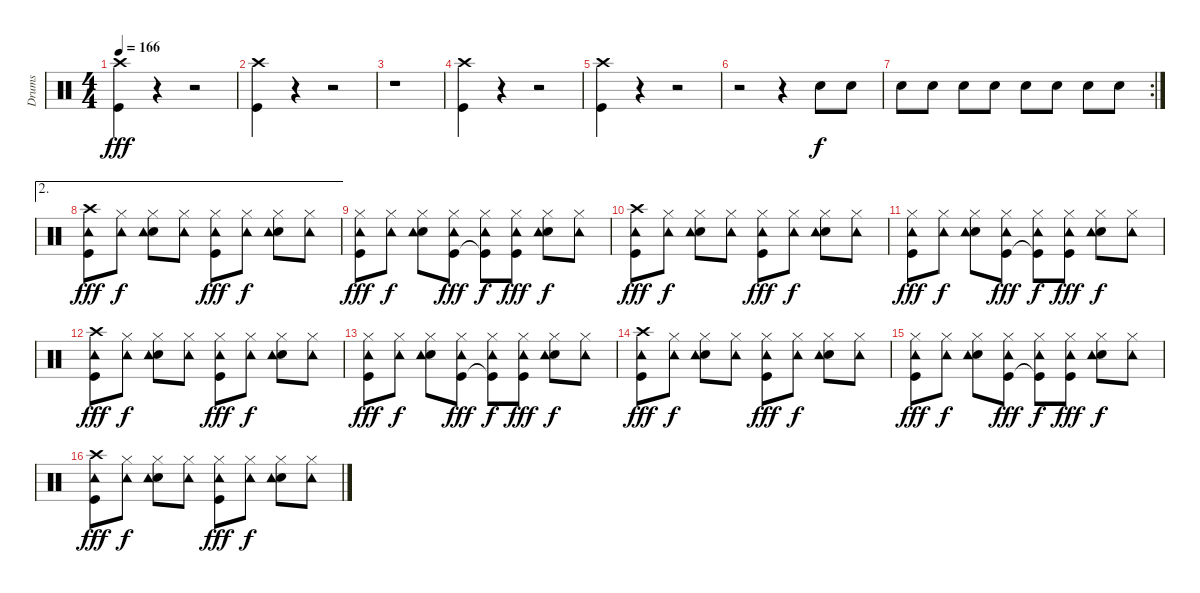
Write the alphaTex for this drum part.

\track ("Drums" "Drums") {instrument percussion}
\staff {score}
\articulation defaults
\ts (4 4)
\tempo 166
\clef neutral
\ks c
("Crash high (hit)" "Kick (hit)").4{dy fff} r.4 r.2 |
("Crash high (hit)" "Kick (hit)").4 r.4 r.2 |
r.1 |
("Crash high (hit)" "Kick (hit)").4 r.4 r.2 |
("Crash high (hit)" "Kick (hit)").4 r.4 r.2 |
r.2 r.4 "Snare (hit) 2".8{dy f} "Snare (hit) 2".8 |
\rc 2 "Snare (hit) 2".8 "Snare (hit) 2".8 "Snare (hit) 2".8 "Snare (hit) 2".8 "Snare (hit) 2".8 "Snare (hit) 2".8 "Snare (hit) 2".8 "Snare (hit) 2".8
|
\ae 2
("Crash high (hit)" "Tambourine (hit)" "Kick (hit)").8{dy fff} ("Hi-Hat (closed)" "Tambourine (hit)").8{dy f} ("Hi-Hat (closed)" "Snare (hit) 2" "Tambourine (hit)").8 ("Hi-Hat (closed)" "Tambourine (hit)").8 ("Hi-Hat (closed)" "Tambourine (hit)" "Kick (hit)").8{dy fff} ("Hi-Hat (closed)" "Tambourine (hit)").8{dy f} ("Hi-Hat (closed)" "Snare (hit) 2" "Tambourine (hit)").8 ("Hi-Hat (closed)" "Tambourine (hit)").8 |
("Hi-Hat (closed)" "Tambourine (hit)" "Kick (hit)").8{dy fff} ("Hi-Hat (closed)" "Tambourine (hit)").8{dy f} ("Hi-Hat (closed)" "Snare (hit) 2" "Tambourine (hit)").8 ("Hi-Hat (closed)" "Tambourine (hit)" "Kick (hit)").8{dy fff} ("Hi-Hat (closed)" "Tambourine (hit)" "Kick (hit)"{t}).8{dy f} ("Hi-Hat (closed)" "Tambourine (hit)" "Kick (hit)").8{dy fff} ("Hi-Hat (closed)" "Snare (hit) 2" "Tambourine (hit)").8{dy f} ("Hi-Hat (closed)" "Tambourine (hit)").8 |
("Crash high (hit)" "Tambourine (hit)" "Kick (hit)").8{dy fff} ("Hi-Hat (closed)" "Tambourine (hit)").8{dy f} ("Hi-Hat (closed)" "Snare (hit) 2" "Tambourine (hit)").8 ("Hi-Hat (closed)" "Tambourine (hit)").8 ("Hi-Hat (closed)" "Tambourine (hit)" "Kick (hit)").8{dy fff} ("Hi-Hat (closed)" "Tambourine (hit)").8{dy f} ("Hi-Hat (closed)" "Snare (hit) 2" "Tambourine (hit)").8 ("Hi-Hat (closed)" "Tambourine (hit)").8 |
("Hi-Hat (closed)" "Tambourine (hit)" "Kick (hit)").8{dy fff} ("Hi-Hat (closed)" "Tambourine (hit)").8{dy f} ("Hi-Hat (closed)" "Snare (hit) 2" "Tambourine (hit)").8 ("Hi-Hat (closed)" "Tambourine (hit)" "Kick (hit)").8{dy fff} ("Hi-Hat (closed)" "Tambourine (hit)" "Kick (hit)"{t}).8{dy f} ("Hi-Hat (closed)" "Tambourine (hit)" "Kick (hit)").8{dy fff} ("Hi-Hat (closed)" "Snare (hit) 2" "Tambourine (hit)").8{dy f} ("Hi-Hat (closed)" "Tambourine (hit)").8 |
("Crash high (hit)" "Tambourine (hit)" "Kick (hit)").8{dy fff} ("Hi-Hat (closed)" "Tambourine (hit)").8{dy f} ("Hi-Hat (closed)" "Snare (hit) 2" "Tambourine (hit)").8 ("Hi-Hat (closed)" "Tambourine (hit)").8 ("Hi-Hat (closed)" "Tambourine (hit)" "Kick (hit)").8{dy fff} ("Hi-Hat (closed)" "Tambourine (hit)").8{dy f} ("Hi-Hat (closed)" "Snare (hit) 2" "Tambourine (hit)").8 ("Hi-Hat (closed)" "Tambourine (hit)").8 |
("Hi-Hat (closed)" "Tambourine (hit)" "Kick (hit)").8{dy fff} ("Hi-Hat (closed)" "Tambourine (hit)").8{dy f} ("Hi-Hat (closed)" "Snare (hit) 2" "Tambourine (hit)").8 ("Hi-Hat (closed)" "Tambourine (hit)" "Kick (hit)").8{dy fff} ("Hi-Hat (closed)" "Tambourine (hit)" "Kick (hit)"{t}).8{dy f} ("Hi-Hat (closed)" "Tambourine (hit)" "Kick (hit)").8{dy fff} ("Hi-Hat (closed)" "Snare (hit) 2" "Tambourine (hit)").8{dy f} ("Hi-Hat (closed)" "Tambourine (hit)").8 |
("Crash high (hit)" "Tambourine (hit)" "Kick (hit)").8{dy fff} ("Hi-Hat (closed)" "Tambourine (hit)").8{dy f} ("Hi-Hat (closed)" "Snare (hit) 2" "Tambourine (hit)").8 ("Hi-Hat (closed)" "Tambourine (hit)").8 ("Hi-Hat (closed)" "Tambourine (hit)" "Kick (hit)").8{dy fff} ("Hi-Hat (closed)" "Tambourine (hit)").8{dy f} ("Hi-Hat (closed)" "Snare (hit) 2" "Tambourine (hit)").8 ("Hi-Hat (closed)" "Tambourine (hit)").8 |
("Hi-Hat (closed)" "Tambourine (hit)" "Kick (hit)").8{dy fff} ("Hi-Hat (closed)" "Tambourine (hit)").8{dy f} ("Hi-Hat (closed)" "Snare (hit) 2" "Tambourine (hit)").8 ("Hi-Hat (closed)" "Tambourine (hit)" "Kick (hit)").8{dy fff} ("Hi-Hat (closed)" "Tambourine (hit)" "Kick (hit)"{t}).8{dy f} ("Hi-Hat (closed)" "Tambourine (hit)" "Kick (hit)").8{dy fff} ("Hi-Hat (closed)" "Snare (hit) 2" "Tambourine (hit)").8{dy f} ("Hi-Hat (closed)" "Tambourine (hit)").8 |
("Crash high (hit)" "Tambourine (hit)" "Kick (hit)").8{dy fff} ("Hi-Hat (closed)" "Tambourine (hit)").8{dy f} ("Hi-Hat (closed)" "Snare (hit) 2" "Tambourine (hit)").8 ("Hi-Hat (closed)" "Tambourine (hit)").8 ("Hi-Hat (closed)" "Tambourine (hit)" "Kick (hit)").8{dy fff} ("Hi-Hat (closed)" "Tambourine (hit)").8{dy f} ("Hi-Hat (closed)" "Snare (hit) 2" "Tambourine (hit)").8 ("Hi-Hat (closed)" "Tambourine (hit)").8
